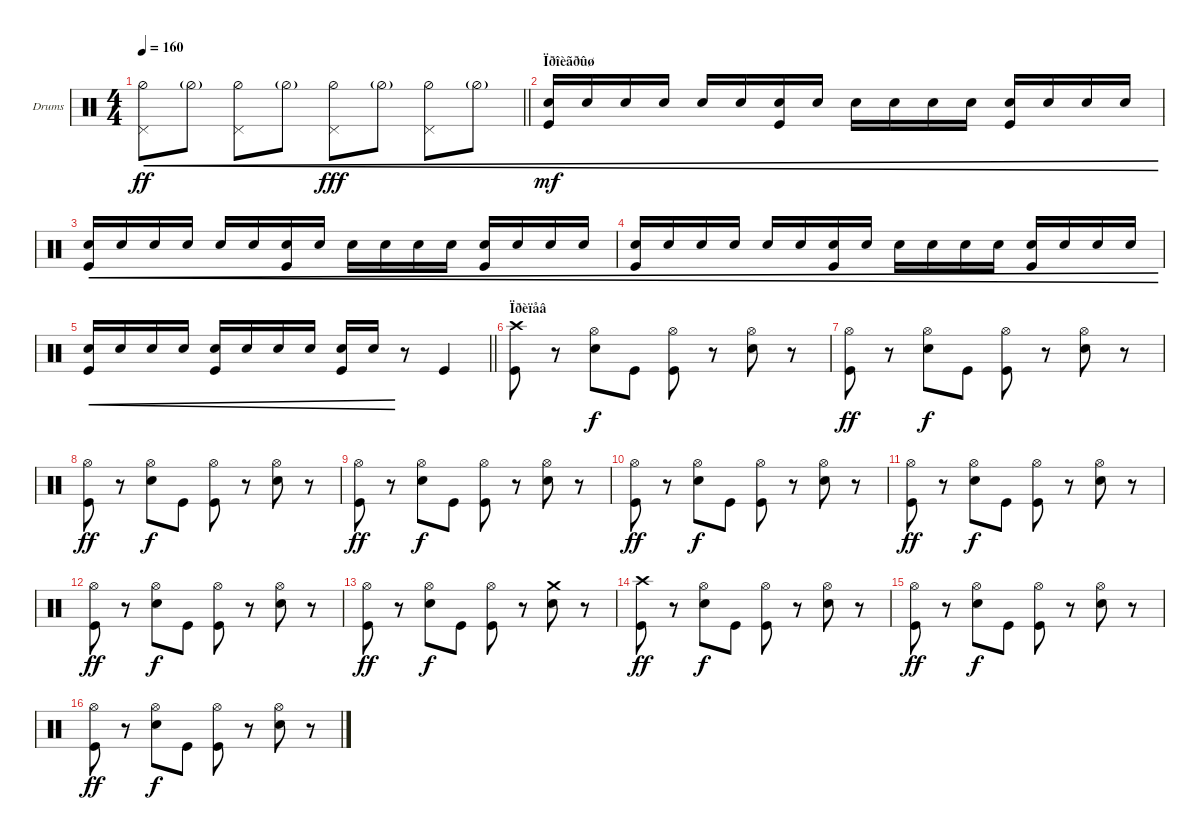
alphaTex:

\bracketExtendMode groupsimilarinstruments
\firstSystemTrackNameOrientation horizontal
\otherSystemsTrackNameOrientation horizontal
\track ("Drumkit" "Drums") {instrument percussion}
\staff {score}
\articulation defaults
\ts (4 4)
\tempo 160
\clef neutral
\barLineRight lightlight
\ks c
("Pedal Hi-Hat (hit)" "Hi-Hat (half)").8{cre dy ff} "Hi-Hat (half)"{g}.8{cre} ("Pedal Hi-Hat (hit)" "Hi-Hat (half)").8{cre} "Hi-Hat (half)"{g}.8{cre} ("Pedal Hi-Hat (hit)" "Hi-Hat (half)").8{cre dy fff} "Hi-Hat (half)"{g}.8{cre} ("Pedal Hi-Hat (hit)" "Hi-Hat (half)").8{cre} "Hi-Hat (half)"{g}.8{cre} |
\section ("" "Ïðîèãðûø")
("Snare (hit) 2" "Kick (hit)").16{cre dy mf} "Snare (hit) 2".16{cre} "Snare (hit) 2".16{cre} "Snare (hit) 2".16{cre} "Snare (hit) 2".16{cre} "Snare (hit) 2".16{cre} ("Snare (hit) 2" "Kick (hit)").16{cre} "Snare (hit) 2".16{cre} "Snare (hit) 2".16{cre} "Snare (hit) 2".16{cre} "Snare (hit) 2".16{cre} "Snare (hit) 2".16{cre} ("Snare (hit) 2" "Kick (hit)").16{cre} "Snare (hit) 2".16{cre} "Snare (hit) 2".16{cre} "Snare (hit) 2".16{cre} |
("Snare (hit) 2" "Kick (hit)").16{cre} "Snare (hit) 2".16{cre} "Snare (hit) 2".16{cre} "Snare (hit) 2".16{cre} "Snare (hit) 2".16{cre} "Snare (hit) 2".16{cre} ("Snare (hit) 2" "Kick (hit)").16{cre} "Snare (hit) 2".16{cre} "Snare (hit) 2".16{cre} "Snare (hit) 2".16{cre} "Snare (hit) 2".16{cre} "Snare (hit) 2".16{cre} ("Snare (hit) 2" "Kick (hit)").16{cre} "Snare (hit) 2".16{cre} "Snare (hit) 2".16{cre} "Snare (hit) 2".16{cre} |
("Snare (hit) 2" "Kick (hit)").16{cre} "Snare (hit) 2".16{cre} "Snare (hit) 2".16{cre} "Snare (hit) 2".16{cre} "Snare (hit) 2".16{cre} "Snare (hit) 2".16{cre} ("Snare (hit) 2" "Kick (hit)").16{cre} "Snare (hit) 2".16{cre} "Snare (hit) 2".16{cre} "Snare (hit) 2".16{cre} "Snare (hit) 2".16{cre} "Snare (hit) 2".16{cre} ("Snare (hit) 2" "Kick (hit)").16{cre} "Snare (hit) 2".16{cre} "Snare (hit) 2".16{cre} "Snare (hit) 2".16{cre} |
\barLineRight lightlight
("Snare (hit) 2" "Kick (hit)").16{cre} "Snare (hit) 2".16{cre} "Snare (hit) 2".16{cre} "Snare (hit) 2".16{cre} ("Snare (hit) 2" "Kick (hit)").16{cre} "Snare (hit) 2".16{cre} "Snare (hit) 2".16{cre} "Snare (hit) 2".16{cre} ("Snare (hit) 2" "Kick (hit)").16{cre} "Snare (hit) 2".16{cre} r.8 "Kick (hit)".4 |
\section ("" "Ïðèïåâ")
("Crash high (hit)" "Kick (hit)").8 r.8 ("Snare (hit) 2" "Hi-Hat (open)").8{dy f} "Kick (hit)".8 ("Kick (hit)" "Hi-Hat (open)").8 r.8 ("Snare (hit) 2" "Hi-Hat (open)").8 r.8 |
("Kick (hit)" "Hi-Hat (open)").8{dy ff} r.8 ("Snare (hit) 2" "Hi-Hat (open)").8{dy f} "Kick (hit)".8 ("Kick (hit)" "Hi-Hat (open)").8 r.8 ("Snare (hit) 2" "Hi-Hat (open)").8 r.8 |
("Kick (hit)" "Hi-Hat (open)").8{dy ff} r.8 ("Snare (hit) 2" "Hi-Hat (open)").8{dy f} "Kick (hit)".8 ("Kick (hit)" "Hi-Hat (open)").8 r.8 ("Snare (hit) 2" "Hi-Hat (open)").8 r.8 |
("Kick (hit)" "Hi-Hat (open)").8{dy ff} r.8 ("Snare (hit) 2" "Hi-Hat (open)").8{dy f} "Kick (hit)".8 ("Kick (hit)" "Hi-Hat (open)").8 r.8 ("Snare (hit) 2" "Hi-Hat (open)").8 r.8 |
("Kick (hit)" "Hi-Hat (open)").8{dy ff} r.8 ("Snare (hit) 2" "Hi-Hat (open)").8{dy f} "Kick (hit)".8 ("Kick (hit)" "Hi-Hat (open)").8 r.8 ("Snare (hit) 2" "Hi-Hat (open)").8 r.8 |
("Kick (hit)" "Hi-Hat (open)").8{dy ff} r.8 ("Snare (hit) 2" "Hi-Hat (open)").8{dy f} "Kick (hit)".8 ("Kick (hit)" "Hi-Hat (open)").8 r.8 ("Snare (hit) 2" "Hi-Hat (open)").8 r.8 |
("Kick (hit)" "Hi-Hat (open)").8{dy ff} r.8 ("Snare (hit) 2" "Hi-Hat (open)").8{dy f} "Kick (hit)".8 ("Kick (hit)" "Hi-Hat (open)").8 r.8 ("Snare (hit) 2" "Hi-Hat (open)").8 r.8 |
("Kick (hit)" "Hi-Hat (open)").8{dy ff} r.8 ("Snare (hit) 2" "Hi-Hat (open)").8{dy f} "Kick (hit)".8 ("Kick (hit)" "Hi-Hat (open)").8 r.8 ("Snare (hit) 2" "Crash medium (hit)").8 r.8 |
("Crash high (hit)" "Kick (hit)").8{dy ff} r.8 ("Snare (hit) 2" "Hi-Hat (open)").8{dy f} "Kick (hit)".8 ("Kick (hit)" "Hi-Hat (open)").8 r.8 ("Snare (hit) 2" "Hi-Hat (open)").8 r.8 |
("Kick (hit)" "Hi-Hat (open)").8{dy ff} r.8 ("Snare (hit) 2" "Hi-Hat (open)").8{dy f} "Kick (hit)".8 ("Kick (hit)" "Hi-Hat (open)").8 r.8 ("Snare (hit) 2" "Hi-Hat (open)").8 r.8 |
("Kick (hit)" "Hi-Hat (open)").8{dy ff} r.8 ("Snare (hit) 2" "Hi-Hat (open)").8{dy f} "Kick (hit)".8 ("Kick (hit)" "Hi-Hat (open)").8 r.8 ("Snare (hit) 2" "Hi-Hat (open)").8 r.8
